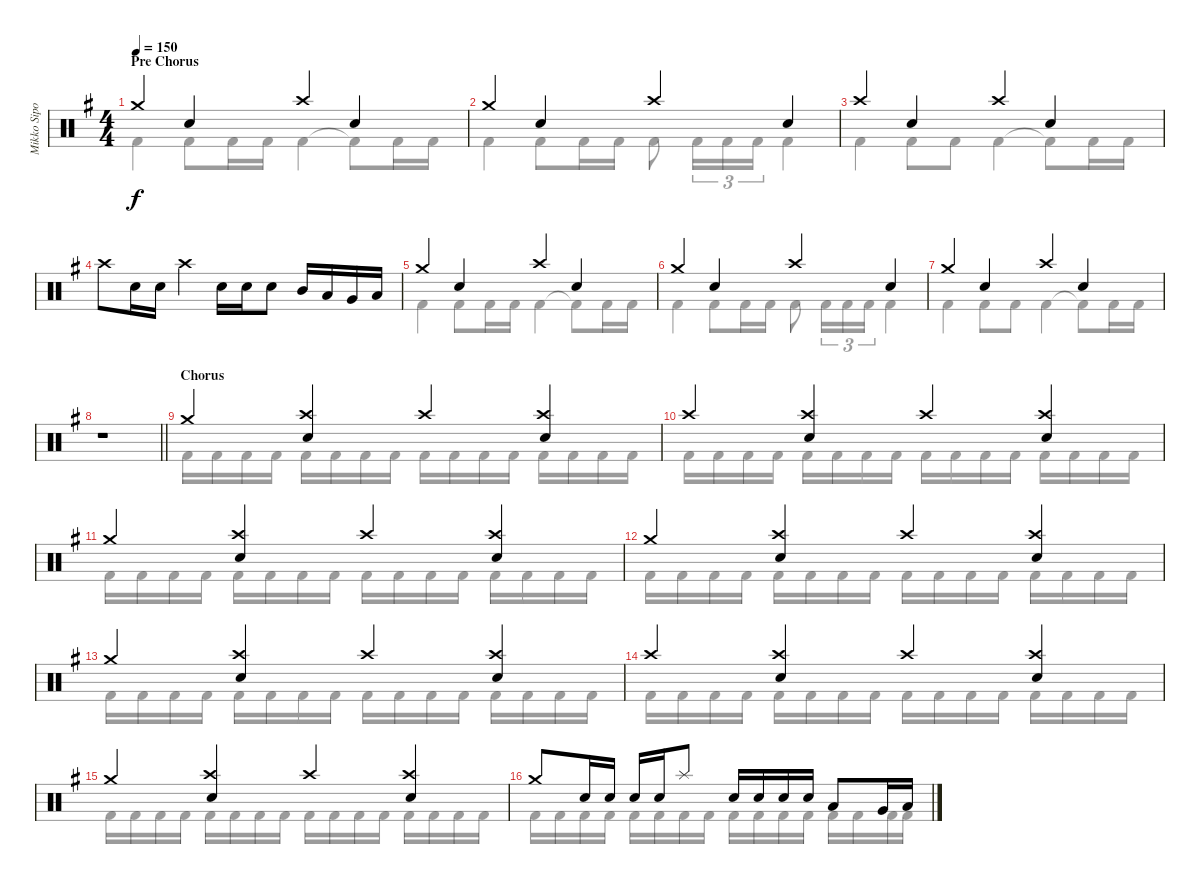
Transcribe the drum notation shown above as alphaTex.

\track ("Mikko Sipola (drums)" "Mikko Sipo") {instrument percussion}
\staff {score}
\articulation defaults
\voice
\ts (4 4)
\section ("" "Pre Chorus")
\tempo 150
\clef neutral
\ks eminor "Crash medium (hit)".4{dy f} "Electric Snare (hit)".4 "Crash high (hit)".4 "Electric Snare (hit)".4
|
"Crash medium (hit)".4 "Electric Snare (hit)".4 "Crash high (hit)".4 "Electric Snare (hit)".4 |
"Crash high (hit)".4 "Electric Snare (hit)".4 "Crash high (hit)".4 "Electric Snare (hit)".4 |
"Crash high (hit)".8 "Electric Snare (hit)".16 "Electric Snare (hit)".16 "Crash high (hit)".4 "Electric Snare (hit)".16 "Electric Snare (hit)".16 "Electric Snare (hit)".8 "Mid Tom (hit)".16 "Low Tom (hit)".16 "Very Low Tom (hit)".16 "Low Floor Tom (hit)".16 |
"Crash medium (hit)".4 "Electric Snare (hit)".4 "Crash high (hit)".4 "Electric Snare (hit)".4 |
"Crash medium (hit)".4 "Electric Snare (hit)".4 "Crash high (hit)".4 "Electric Snare (hit)".4 |
"Crash medium (hit)".4 "Electric Snare (hit)".4 "Crash high (hit)".4 "Electric Snare (hit)".4 |
\barLineRight lightlight
r.1 |
\section ("" "Chorus")
"Crash medium (hit)".4 ("Crash high (hit)" "Electric Snare (hit)").4 "Crash high (hit)".4 ("Crash high (hit)" "Electric Snare (hit)").4 |
"Crash high (hit)".4 ("Crash high (hit)" "Electric Snare (hit)").4 "Crash high (hit)".4 ("Crash high (hit)" "Electric Snare (hit)").4 |
"Crash medium (hit)".4 ("Crash high (hit)" "Electric Snare (hit)").4 "Crash high (hit)".4 ("Crash high (hit)" "Electric Snare (hit)").4 |
"Crash medium (hit)".4 ("Crash high (hit)" "Electric Snare (hit)").4 "Crash high (hit)".4 ("Crash high (hit)" "Electric Snare (hit)").4 |
"Crash medium (hit)".4 ("Crash high (hit)" "Electric Snare (hit)").4 "Crash high (hit)".4 ("Crash high (hit)" "Electric Snare (hit)").4 |
"Crash high (hit)".4 ("Crash high (hit)" "Electric Snare (hit)").4 "Crash high (hit)".4 ("Crash high (hit)" "Electric Snare (hit)").4 |
"Crash medium (hit)".4 ("Crash high (hit)" "Electric Snare (hit)").4 "Crash high (hit)".4 ("Crash high (hit)" "Electric Snare (hit)").4 |
"Crash medium (hit)".8 "Electric Snare (hit)".16 "Electric Snare (hit)".16 "Electric Snare (hit)".16 "Electric Snare (hit)".16 "Splash (hit)".8 "Electric Snare (hit)".16 "Electric Snare (hit)".16 "Electric Snare (hit)".16 "Electric Snare (hit)".16 "Low Tom (hit)".8 "Very Low Tom (hit)".16 "Low Floor Tom (hit)".16
\voice
\clef neutral
\ottava regular
\simile none
\ks eminor "Kick (hit) 2".4{dy f} "Kick (hit) 2".8 "Kick (hit) 2".16 "Kick (hit) 2".16 "Kick (hit) 2".4 "Kick (hit) 2"{t}.8 "Kick (hit) 2".16 "Kick (hit) 2".16
|
"Kick (hit) 2".4 "Kick (hit) 2".8 "Kick (hit) 2".16 "Kick (hit) 2".16 "Kick (hit) 2".8 "Kick (hit) 2".16{tu (3 2)} "Kick (hit) 2".16{tu (3 2)} "Kick (hit) 2".16{tu (3 2)} "Kick (hit) 2".4 |
"Kick (hit) 2".4 "Kick (hit) 2".8 "Kick (hit) 2".8 "Kick (hit) 2".4 "Kick (hit) 2"{t}.8 "Kick (hit) 2".16 "Kick (hit) 2".16 |
|
"Kick (hit) 2".4 "Kick (hit) 2".8 "Kick (hit) 2".16 "Kick (hit) 2".16 "Kick (hit) 2".4 "Kick (hit) 2"{t}.8 "Kick (hit) 2".16 "Kick (hit) 2".16 |
"Kick (hit) 2".4 "Kick (hit) 2".8 "Kick (hit) 2".16 "Kick (hit) 2".16 "Kick (hit) 2".8 "Kick (hit) 2".16{tu (3 2)} "Kick (hit) 2".16{tu (3 2)} "Kick (hit) 2".16{tu (3 2)} "Kick (hit) 2".4 |
"Kick (hit) 2".4 "Kick (hit) 2".8 "Kick (hit) 2".8 "Kick (hit) 2".4 "Kick (hit) 2"{t}.8 "Kick (hit) 2".16 "Kick (hit) 2".16 |
\barLineRight lightlight
|
"Kick (hit) 2".16 "Kick (hit) 2".16 "Kick (hit) 2".16 "Kick (hit) 2".16 "Kick (hit) 2".16 "Kick (hit) 2".16 "Kick (hit) 2".16 "Kick (hit) 2".16 "Kick (hit) 2".16 "Kick (hit) 2".16 "Kick (hit) 2".16 "Kick (hit) 2".16 "Kick (hit) 2".16 "Kick (hit) 2".16 "Kick (hit) 2".16 "Kick (hit) 2".16 |
"Kick (hit) 2".16 "Kick (hit) 2".16 "Kick (hit) 2".16 "Kick (hit) 2".16 "Kick (hit) 2".16 "Kick (hit) 2".16 "Kick (hit) 2".16 "Kick (hit) 2".16 "Kick (hit) 2".16 "Kick (hit) 2".16 "Kick (hit) 2".16 "Kick (hit) 2".16 "Kick (hit) 2".16 "Kick (hit) 2".16 "Kick (hit) 2".16 "Kick (hit) 2".16 |
"Kick (hit) 2".16 "Kick (hit) 2".16 "Kick (hit) 2".16 "Kick (hit) 2".16 "Kick (hit) 2".16 "Kick (hit) 2".16 "Kick (hit) 2".16 "Kick (hit) 2".16 "Kick (hit) 2".16 "Kick (hit) 2".16 "Kick (hit) 2".16 "Kick (hit) 2".16 "Kick (hit) 2".16 "Kick (hit) 2".16 "Kick (hit) 2".16 "Kick (hit) 2".16 |
"Kick (hit) 2".16 "Kick (hit) 2".16 "Kick (hit) 2".16 "Kick (hit) 2".16 "Kick (hit) 2".16 "Kick (hit) 2".16 "Kick (hit) 2".16 "Kick (hit) 2".16 "Kick (hit) 2".16 "Kick (hit) 2".16 "Kick (hit) 2".16 "Kick (hit) 2".16 "Kick (hit) 2".16 "Kick (hit) 2".16 "Kick (hit) 2".16 "Kick (hit) 2".16 |
"Kick (hit) 2".16 "Kick (hit) 2".16 "Kick (hit) 2".16 "Kick (hit) 2".16 "Kick (hit) 2".16 "Kick (hit) 2".16 "Kick (hit) 2".16 "Kick (hit) 2".16 "Kick (hit) 2".16 "Kick (hit) 2".16 "Kick (hit) 2".16 "Kick (hit) 2".16 "Kick (hit) 2".16 "Kick (hit) 2".16 "Kick (hit) 2".16 "Kick (hit) 2".16 |
"Kick (hit) 2".16 "Kick (hit) 2".16 "Kick (hit) 2".16 "Kick (hit) 2".16 "Kick (hit) 2".16 "Kick (hit) 2".16 "Kick (hit) 2".16 "Kick (hit) 2".16 "Kick (hit) 2".16 "Kick (hit) 2".16 "Kick (hit) 2".16 "Kick (hit) 2".16 "Kick (hit) 2".16 "Kick (hit) 2".16 "Kick (hit) 2".16 "Kick (hit) 2".16 |
"Kick (hit) 2".16 "Kick (hit) 2".16 "Kick (hit) 2".16 "Kick (hit) 2".16 "Kick (hit) 2".16 "Kick (hit) 2".16 "Kick (hit) 2".16 "Kick (hit) 2".16 "Kick (hit) 2".16 "Kick (hit) 2".16 "Kick (hit) 2".16 "Kick (hit) 2".16 "Kick (hit) 2".16 "Kick (hit) 2".16 "Kick (hit) 2".16 "Kick (hit) 2".16 |
"Kick (hit) 2".16 "Kick (hit) 2".16 "Kick (hit) 2".16 "Kick (hit) 2".16 "Kick (hit) 2".16 "Kick (hit) 2".16 "Kick (hit) 2".16 "Kick (hit) 2".16 "Kick (hit) 2".16 "Kick (hit) 2".16 "Kick (hit) 2".16 "Kick (hit) 2".16 "Kick (hit) 2".16 "Kick (hit) 2".16 "Kick (hit) 2".16 "Kick (hit) 2".16
